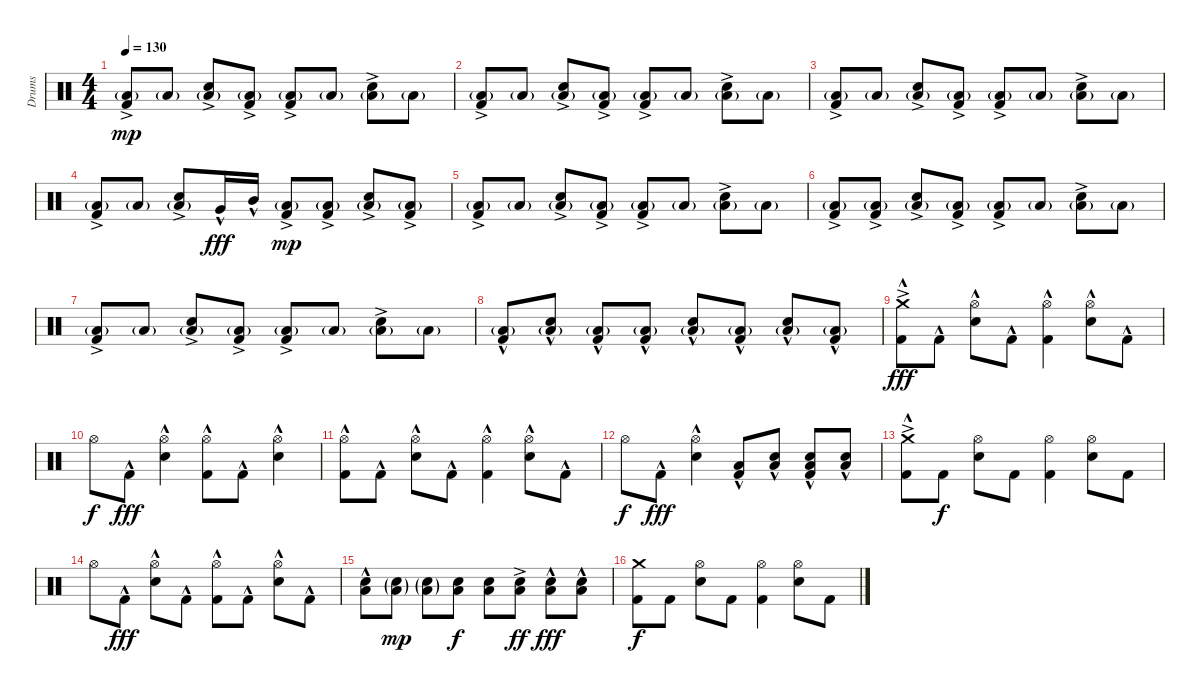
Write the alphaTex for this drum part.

\track ("Drums" "Drums") {instrument percussion}
\staff {score}
\articulation defaults
\ts (4 4)
\tempo 130
\clef neutral
\ks c
("Kick (hit) 2"{ac} "Low Floor Tom (hit)"{g}).8{dy mp} "Low Floor Tom (hit)"{g}.8 ("Electric Snare (hit)"{ac} "Low Floor Tom (hit)"{g}).8 ("Kick (hit) 2"{ac} "Low Floor Tom (hit)"{g}).8 ("Kick (hit) 2"{ac} "Low Floor Tom (hit)"{g}).8 "Low Floor Tom (hit)"{g}.8 ("Electric Snare (hit)"{ac} "Low Floor Tom (hit)"{g}).8 "Low Floor Tom (hit)"{g}.8 |
("Kick (hit) 2"{ac} "Low Floor Tom (hit)"{g}).8 "Low Floor Tom (hit)"{g}.8 ("Electric Snare (hit)"{ac} "Low Floor Tom (hit)"{g}).8 ("Kick (hit) 2"{ac} "Low Floor Tom (hit)"{g}).8 ("Kick (hit) 2"{ac} "Low Floor Tom (hit)"{g}).8 "Low Floor Tom (hit)"{g}.8 ("Electric Snare (hit)"{ac} "Low Floor Tom (hit)"{g}).8 "Low Floor Tom (hit)"{g}.8 |
("Kick (hit) 2"{ac} "Low Floor Tom (hit)"{g}).8 "Low Floor Tom (hit)"{g}.8 ("Electric Snare (hit)"{ac} "Low Floor Tom (hit)"{g}).8 ("Kick (hit) 2"{ac} "Low Floor Tom (hit)"{g}).8 ("Kick (hit) 2"{ac} "Low Floor Tom (hit)"{g}).8 "Low Floor Tom (hit)"{g}.8 ("Electric Snare (hit)"{ac} "Low Floor Tom (hit)"{g}).8 "Low Floor Tom (hit)"{g}.8 |
("Kick (hit) 2"{ac} "Low Floor Tom (hit)"{g}).8 "Low Floor Tom (hit)"{g}.8 ("Electric Snare (hit)"{ac} "Low Floor Tom (hit)"{g}).8 "Very Low Tom (hit)"{hac}.16{dy fff} "Mid Tom (hit)"{hac}.16 ("Kick (hit) 2"{ac} "Low Floor Tom (hit)"{g}).8{dy mp} ("Kick (hit) 2"{ac} "Low Floor Tom (hit)"{g}).8 ("Electric Snare (hit)"{ac} "Low Floor Tom (hit)"{g}).8 ("Kick (hit) 2"{ac} "Low Floor Tom (hit)"{g}).8 |
("Kick (hit) 2"{ac} "Low Floor Tom (hit)"{g}).8 "Low Floor Tom (hit)"{g}.8 ("Electric Snare (hit)"{ac} "Low Floor Tom (hit)"{g}).8 ("Kick (hit) 2"{ac} "Low Floor Tom (hit)"{g}).8 ("Kick (hit) 2"{ac} "Low Floor Tom (hit)"{g}).8 "Low Floor Tom (hit)"{g}.8 ("Electric Snare (hit)"{ac} "Low Floor Tom (hit)"{g}).8 "Low Floor Tom (hit)"{g}.8 |
("Kick (hit) 2"{ac} "Low Floor Tom (hit)"{g}).8 ("Kick (hit) 2"{ac} "Low Floor Tom (hit)"{g}).8 ("Electric Snare (hit)"{ac} "Low Floor Tom (hit)"{g}).8 ("Kick (hit) 2"{ac} "Low Floor Tom (hit)"{g}).8 ("Kick (hit) 2"{ac} "Low Floor Tom (hit)"{g}).8 "Low Floor Tom (hit)"{g}.8 ("Electric Snare (hit)"{ac} "Low Floor Tom (hit)"{g}).8 "Low Floor Tom (hit)"{g}.8 |
("Kick (hit) 2"{ac} "Low Floor Tom (hit)"{g}).8 "Low Floor Tom (hit)"{g}.8 ("Electric Snare (hit)"{ac} "Low Floor Tom (hit)"{g}).8 ("Kick (hit) 2"{ac} "Low Floor Tom (hit)"{g}).8 ("Kick (hit) 2"{ac} "Low Floor Tom (hit)"{g}).8 "Low Floor Tom (hit)"{g}.8 ("Electric Snare (hit)"{ac} "Low Floor Tom (hit)"{g}).8 "Low Floor Tom (hit)"{g}.8 |
("Kick (hit) 2"{hac} "Low Floor Tom (hit)"{g}).8 ("Electric Snare (hit)"{hac} "Low Floor Tom (hit)"{g}).8 ("Kick (hit) 2"{hac} "Low Floor Tom (hit)"{g}).8 ("Kick (hit) 2"{hac} "Low Floor Tom (hit)"{g}).8 ("Electric Snare (hit)"{hac} "Low Floor Tom (hit)"{g}).8 ("Kick (hit) 2"{hac} "Low Floor Tom (hit)"{g}).8 ("Electric Snare (hit)"{hac} "Low Floor Tom (hit)"{g}).8 ("Kick (hit) 2"{hac} "Low Floor Tom (hit)"{g}).8 |
("Crash medium (hit)"{ac} "Kick (hit) 2"{hac}).8{dy fff} "Kick (hit) 2"{hac}.8 ("Hi-Hat (open)" "Electric Snare (hit)"{hac}).8 "Kick (hit) 2"{hac}.8 ("Hi-Hat (open)" "Kick (hit) 2"{hac}).4 ("Hi-Hat (open)" "Electric Snare (hit)"{hac}).8 "Kick (hit) 2"{hac}.8 |
"Hi-Hat (open)".8{dy f} "Kick (hit) 2"{hac}.8{dy fff} ("Hi-Hat (open)" "Electric Snare (hit)"{hac}).4 ("Hi-Hat (open)" "Kick (hit) 2"{hac}).8 "Kick (hit) 2"{hac}.8 ("Hi-Hat (open)" "Electric Snare (hit)"{hac}).4 |
("Hi-Hat (open)" "Kick (hit) 2"{hac}).8 "Kick (hit) 2"{hac}.8 ("Hi-Hat (open)" "Electric Snare (hit)"{hac}).8 "Kick (hit) 2"{hac}.8 ("Hi-Hat (open)" "Kick (hit) 2"{hac}).4 ("Hi-Hat (open)" "Electric Snare (hit)"{hac}).8 "Kick (hit) 2"{hac}.8 |
"Hi-Hat (open)".8{dy f} "Kick (hit) 2"{hac}.8{dy fff} ("Hi-Hat (open)" "Electric Snare (hit)"{hac}).4 ("Low Floor Tom (hit)"{hac} "Kick (hit) 2"{hac}).8 ("Electric Snare (hit)"{hac} "Low Floor Tom (hit)"{hac}).8 ("Kick (hit) 2"{hac} "Electric Snare (hit)"{hac} "Low Floor Tom (hit)"{hac}).8 ("Electric Snare (hit)"{hac} "Low Floor Tom (hit)"{hac}).8 |
("Crash medium (hit)"{ac} "Kick (hit) 2"{hac}).8 "Kick (hit) 2".8{dy f} ("Hi-Hat (open)" "Electric Snare (hit)").8 "Kick (hit) 2".8 ("Hi-Hat (open)" "Kick (hit) 2").4 ("Hi-Hat (open)" "Electric Snare (hit)").8 "Kick (hit) 2".8 |
"Hi-Hat (open)".8 "Kick (hit) 2"{hac}.8{dy fff} ("Hi-Hat (open)" "Electric Snare (hit)"{hac}).8 "Kick (hit) 2"{hac}.8 ("Hi-Hat (open)" "Kick (hit) 2"{hac}).8 "Kick (hit) 2"{hac}.8 ("Hi-Hat (open)" "Electric Snare (hit)"{hac}).8 "Kick (hit) 2"{hac}.8 |
("Electric Snare (hit)"{hac} "Low Floor Tom (hit)"{hac}).8 ("Electric Snare (hit)"{g} "Low Floor Tom (hit)"{g}).8{dy mp} ("Electric Snare (hit)"{g} "Low Floor Tom (hit)"{g}).8 ("Electric Snare (hit)" "Low Floor Tom (hit)").8{dy f} ("Electric Snare (hit)" "Low Floor Tom (hit)").8 ("Electric Snare (hit)"{ac} "Low Floor Tom (hit)"{ac}).8{dy ff} ("Electric Snare (hit)"{hac} "Low Floor Tom (hit)"{hac}).8{dy fff} ("Electric Snare (hit)"{hac} "Low Floor Tom (hit)"{hac}).8 |
("Crash medium (hit)" "Kick (hit) 2").8{dy f} "Kick (hit) 2".8 ("Hi-Hat (open)" "Electric Snare (hit)").8 "Kick (hit) 2".8 ("Hi-Hat (open)" "Kick (hit) 2").4 ("Hi-Hat (open)" "Electric Snare (hit)").8 "Kick (hit) 2".8
